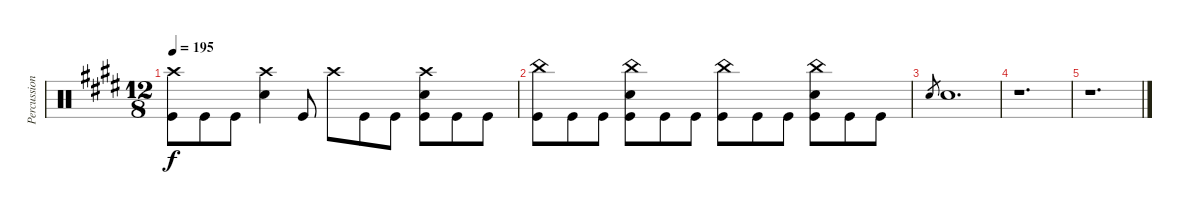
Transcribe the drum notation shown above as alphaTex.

\track ("Percussion" "Percussion") {instrument percussion}
\staff {score}
\articulation defaults
\ts (12 8)
\tempo 195
\clef neutral
\ks e
("Crash high (hit)" "Kick (hit)").8{dy f} "Kick (hit)".8 "Kick (hit)".8 ("Crash high (hit)" "Electric Snare (hit)").4 "Kick (hit)".8 "Crash high (hit)".8 "Kick (hit)".8 "Kick (hit)".8 ("Crash high (hit)" "Electric Snare (hit)" "Kick (hit)").8 "Kick (hit)".8 "Kick (hit)".8 |
("China (hit)" "Kick (hit)").8 "Kick (hit)".8 "Kick (hit)".8 ("China (hit)" "Electric Snare (hit)" "Kick (hit)").8 "Kick (hit)".8 "Kick (hit)".8 ("China (hit)" "Kick (hit)").8 "Kick (hit)".8 "Kick (hit)".8 ("China (hit)" "Electric Snare (hit)" "Kick (hit)").8 "Kick (hit)".8 "Kick (hit)".8 |
"Electric Snare (hit)".8{gr} "Electric Snare (hit)".1{d} |
r.1{d} |
r.1{d}
